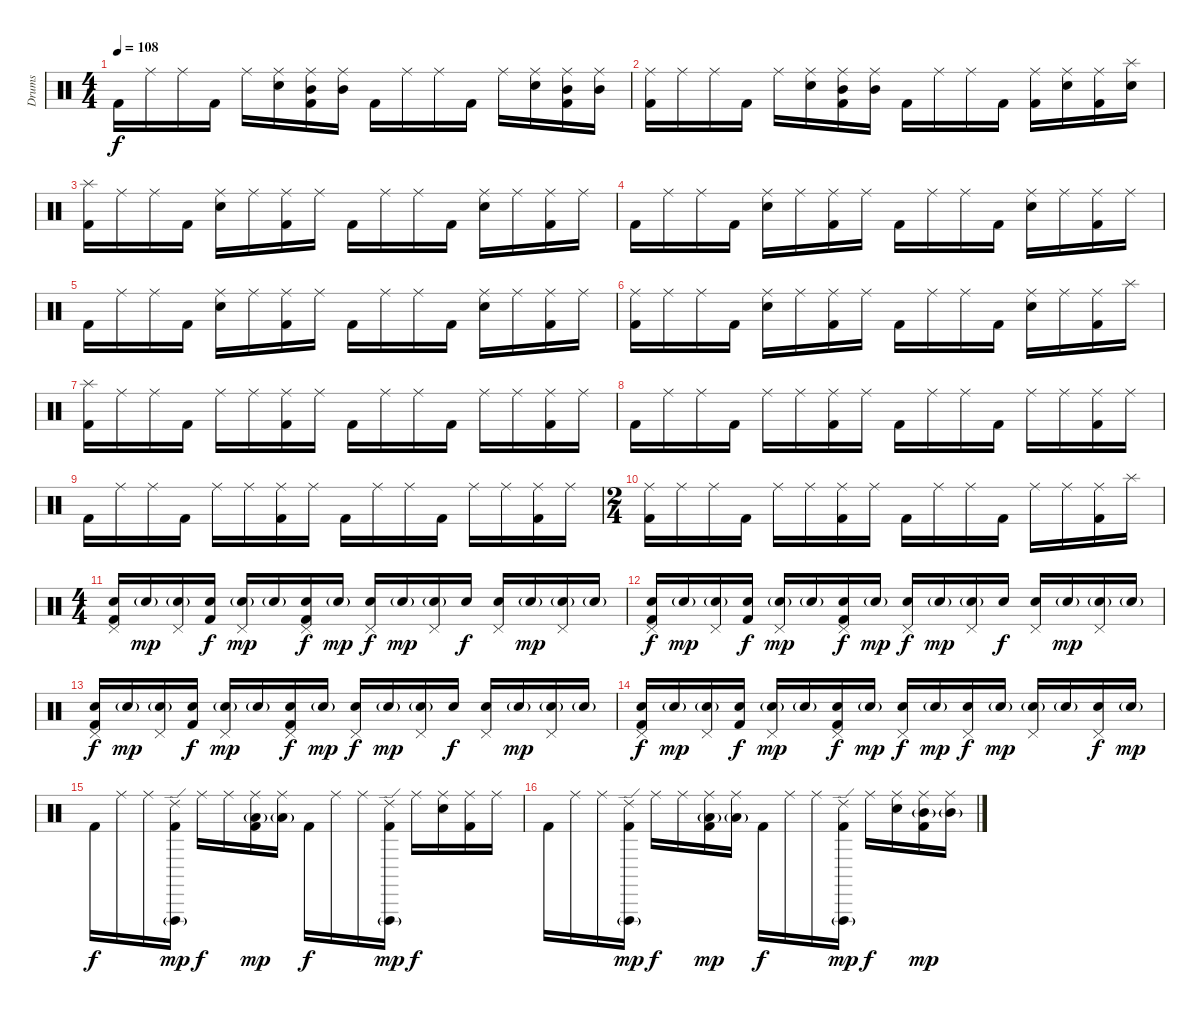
\track ("Drums" "Drums") {instrument percussion}
\staff {score}
\articulation defaults
\ts (4 4)
\tempo 108
\clef neutral
\ks c "Kick (hit) 2".16{dy f} "Ride (middle)".16 "Ride (middle)".16 "Kick (hit) 2".16 "Ride (middle)".16
("Ride (middle)" "Snare (hit) 2").16 ("Ride (middle)" "Mid Tom (hit)" "Kick (hit) 2").16 ("Ride (middle)" "Mid Tom (hit)").16 "Kick (hit) 2".16 "Ride (middle)".16 "Ride (middle)".16 "Kick (hit) 2".16 "Ride (middle)".16 ("Ride (middle)" "Snare (hit) 2").16 ("Ride (middle)" "Mid Tom (hit)" "Kick (hit) 2").16 ("Ride (middle)" "Mid Tom (hit)").16 |
("Ride (middle)" "Kick (hit) 2").16 "Ride (middle)".16 "Ride (middle)".16 "Kick (hit) 2".16 "Ride (middle)".16 ("Ride (middle)" "Snare (hit) 2").16 ("Ride (middle)" "Mid Tom (hit)" "Kick (hit) 2").16 ("Ride (middle)" "Mid Tom (hit)").16 "Kick (hit) 2".16 "Ride (middle)".16 "Ride (middle)".16 "Kick (hit) 2".16 ("Ride (middle)" "Kick (hit) 2").16 ("Ride (middle)" "Snare (hit) 2").16 ("Ride (middle)" "Kick (hit) 2").16 ("Splash (hit)" "Snare (hit) 2").16 |
("Splash (hit)" "Kick (hit) 2").16 "Ride (middle)".16 "Ride (middle)".16 "Kick (hit) 2".16 ("Ride (middle)" "Snare (hit) 2").16 "Ride (middle)".16 ("Ride (middle)" "Kick (hit) 2").16 "Ride (middle)".16 "Kick (hit) 2".16 "Ride (middle)".16 "Ride (middle)".16 "Kick (hit) 2".16 ("Ride (middle)" "Snare (hit) 2").16 "Ride (middle)".16 ("Ride (middle)" "Kick (hit) 2").16 "Ride (middle)".16 |
"Kick (hit) 2".16 "Ride (middle)".16 "Ride (middle)".16 "Kick (hit) 2".16 ("Ride (middle)" "Snare (hit) 2").16 "Ride (middle)".16 ("Ride (middle)" "Kick (hit) 2").16 "Ride (middle)".16 "Kick (hit) 2".16 "Ride (middle)".16 "Ride (middle)".16 "Kick (hit) 2".16 ("Ride (middle)" "Snare (hit) 2").16 "Ride (middle)".16 ("Ride (middle)" "Kick (hit) 2").16 "Ride (middle)".16 |
"Kick (hit) 2".16 "Ride (middle)".16 "Ride (middle)".16 "Kick (hit) 2".16 ("Ride (middle)" "Snare (hit) 2").16 "Ride (middle)".16 ("Ride (middle)" "Kick (hit) 2").16 "Ride (middle)".16 "Kick (hit) 2".16 "Ride (middle)".16 "Ride (middle)".16 "Kick (hit) 2".16 ("Ride (middle)" "Snare (hit) 2").16 "Ride (middle)".16 ("Ride (middle)" "Kick (hit) 2").16 "Ride (middle)".16 |
("Ride (middle)" "Kick (hit) 2").16 "Ride (middle)".16 "Ride (middle)".16 "Kick (hit) 2".16 ("Ride (middle)" "Snare (hit) 2").16 "Ride (middle)".16 ("Ride (middle)" "Kick (hit) 2").16 "Ride (middle)".16 "Kick (hit) 2".16 "Ride (middle)".16 "Ride (middle)".16 "Kick (hit) 2".16 ("Ride (middle)" "Snare (hit) 2").16 "Ride (middle)".16 ("Ride (middle)" "Kick (hit) 2").16 "Splash (hit)".16 |
("Splash (hit)" "Kick (hit) 2").16 "Ride (middle)".16 "Ride (middle)".16 "Kick (hit) 2".16 "Ride (middle)".16 "Ride (middle)".16 ("Ride (middle)" "Kick (hit) 2").16 "Ride (middle)".16 "Kick (hit) 2".16 "Ride (middle)".16 "Ride (middle)".16 "Kick (hit) 2".16 "Ride (middle)".16 "Ride (middle)".16 ("Ride (middle)" "Kick (hit) 2").16 "Ride (middle)".16 |
"Kick (hit) 2".16 "Ride (middle)".16 "Ride (middle)".16 "Kick (hit) 2".16 "Ride (middle)".16 "Ride (middle)".16 ("Ride (middle)" "Kick (hit) 2").16 "Ride (middle)".16 "Kick (hit) 2".16 "Ride (middle)".16 "Ride (middle)".16 "Kick (hit) 2".16 "Ride (middle)".16 "Ride (middle)".16 ("Ride (middle)" "Kick (hit) 2").16 "Ride (middle)".16 |
"Kick (hit) 2".16 "Ride (middle)".16 "Ride (middle)".16 "Kick (hit) 2".16 "Ride (middle)".16 "Ride (middle)".16 ("Ride (middle)" "Kick (hit) 2").16 "Ride (middle)".16 "Kick (hit) 2".16 "Ride (middle)".16 "Ride (middle)".16 "Kick (hit) 2".16 "Ride (middle)".16 "Ride (middle)".16 ("Ride (middle)" "Kick (hit) 2").16 "Ride (middle)".16 |
\ts (2 4)
("Ride (middle)" "Kick (hit) 2").16 "Ride (middle)".16 "Ride (middle)".16 "Kick (hit) 2".16 "Ride (middle)".16 "Ride (middle)".16 ("Ride (middle)" "Kick (hit) 2").16 "Ride (middle)".16 "Kick (hit) 2".16 "Ride (middle)".16 "Ride (middle)".16 "Kick (hit) 2".16 "Ride (middle)".16 "Ride (middle)".16 ("Ride (middle)" "Kick (hit) 2").16 "Splash (hit)".16 |
\ts (4 4)
("Snare (hit) 2" "Kick (hit) 2" "Pedal Hi-Hat (hit)").16{volume 13} "Snare (hit) 2"{g}.16{dy mp volume 9} ("Snare (hit) 2"{g} "Pedal Hi-Hat (hit)").16 ("Snare (hit) 2" "Kick (hit) 2").16{dy f} ("Snare (hit) 2"{g} "Pedal Hi-Hat (hit)").16{dy mp} "Snare (hit) 2"{g}.16 ("Snare (hit) 2" "Kick (hit) 2" "Pedal Hi-Hat (hit)").16{dy f} "Snare (hit) 2"{g}.16{dy mp} ("Snare (hit) 2" "Pedal Hi-Hat (hit)").16{dy f} "Snare (hit) 2"{g}.16{dy mp} ("Snare (hit) 2"{g} "Pedal Hi-Hat (hit)").16 "Snare (hit) 2".16{dy f volume 13} ("Snare (hit) 2" "Pedal Hi-Hat (hit)").16 "Snare (hit) 2"{g}.16{dy mp volume 8} ("Snare (hit) 2"{g} "Pedal Hi-Hat (hit)").16 "Snare (hit) 2"{g}.16 |
("Snare (hit) 2" "Kick (hit) 2" "Pedal Hi-Hat (hit)").16{dy f volume 13} "Snare (hit) 2"{g}.16{dy mp volume 9} ("Snare (hit) 2"{g} "Pedal Hi-Hat (hit)").16 ("Snare (hit) 2" "Kick (hit) 2").16{dy f} ("Snare (hit) 2"{g} "Pedal Hi-Hat (hit)").16{dy mp} "Snare (hit) 2"{g}.16 ("Snare (hit) 2" "Kick (hit) 2" "Pedal Hi-Hat (hit)").16{dy f} "Snare (hit) 2"{g}.16{dy mp volume 10} ("Snare (hit) 2" "Pedal Hi-Hat (hit)").16{dy f volume 13} "Snare (hit) 2"{g}.16{dy mp volume 13} ("Snare (hit) 2"{g} "Pedal Hi-Hat (hit)").16 "Snare (hit) 2".16{dy f volume 16} ("Snare (hit) 2" "Pedal Hi-Hat (hit)").16{volume 16} "Snare (hit) 2"{g}.16{dy mp volume 12} ("Snare (hit) 2"{g} "Pedal Hi-Hat (hit)").16{volume 13} "Snare (hit) 2"{g}.16{volume 13} |
("Snare (hit) 2" "Kick (hit) 2" "Pedal Hi-Hat (hit)").16{dy f volume 13} "Snare (hit) 2"{g}.16{dy mp volume 9} ("Snare (hit) 2"{g} "Pedal Hi-Hat (hit)").16 ("Snare (hit) 2" "Kick (hit) 2").16{dy f} ("Snare (hit) 2"{g} "Pedal Hi-Hat (hit)").16{dy mp} "Snare (hit) 2"{g}.16 ("Snare (hit) 2" "Kick (hit) 2" "Pedal Hi-Hat (hit)").16{dy f} "Snare (hit) 2"{g}.16{dy mp} ("Snare (hit) 2" "Pedal Hi-Hat (hit)").16{dy f} "Snare (hit) 2"{g}.16{dy mp} ("Snare (hit) 2"{g} "Pedal Hi-Hat (hit)").16 "Snare (hit) 2".16{dy f volume 13} ("Snare (hit) 2" "Pedal Hi-Hat (hit)").16 "Snare (hit) 2"{g}.16{dy mp volume 8} ("Snare (hit) 2"{g} "Pedal Hi-Hat (hit)").16 "Snare (hit) 2"{g}.16 |
("Snare (hit) 2" "Kick (hit) 2" "Pedal Hi-Hat (hit)").16{dy f volume 13} "Snare (hit) 2"{g}.16{dy mp volume 9} ("Snare (hit) 2"{g} "Pedal Hi-Hat (hit)").16 ("Snare (hit) 2" "Kick (hit) 2").16{dy f} ("Snare (hit) 2"{g} "Pedal Hi-Hat (hit)").16{dy mp} "Snare (hit) 2"{g}.16 ("Snare (hit) 2" "Kick (hit) 2" "Pedal Hi-Hat (hit)").16{dy f} "Snare (hit) 2"{g}.16{dy mp} ("Snare (hit) 2" "Pedal Hi-Hat (hit)").16{dy f} "Snare (hit) 2"{g}.16{dy mp} ("Snare (hit) 2" "Pedal Hi-Hat (hit)").16{dy f volume 16} "Snare (hit) 2"{g}.16{dy mp volume 13} ("Snare (hit) 2"{g} "Pedal Hi-Hat (hit)").16 "Snare (hit) 2"{g}.16{volume 10} ("Snare (hit) 2" "Pedal Hi-Hat (hit)").16{dy f volume 16} "Snare (hit) 2"{g}.16{dy mp volume 10} |
"Kick (hit) 2".16{dy f volume 16} "Ride (middle)".16 "Ride (middle)".16 ("Vibraslap (hit)"{g} "Ride (edge) 2" "Kick (hit) 2").16{dy mp} "Ride (middle)".16{dy f} "Ride (middle)".16 ("Ride (middle)" "Kick (hit) 2" "Low Tom (hit)"{g}).16{dy mp} ("Ride (middle)" "Low Tom (hit)"{g}).16 "Kick (hit) 2".16{dy f} "Ride (middle)".16 "Ride (middle)".16 ("Vibraslap (hit)"{g} "Ride (edge) 2" "Kick (hit) 2").16{dy mp} "Ride (middle)".16{dy f} ("Ride (middle)" "Snare (hit) 2").16 ("Ride (middle)" "Kick (hit) 2").16 "Ride (middle)".16 |
"Kick (hit) 2".16 "Ride (middle)".16 "Ride (middle)".16 ("Vibraslap (hit)"{g} "Ride (edge) 2" "Kick (hit) 2").16{dy mp} "Ride (middle)".16{dy f} "Ride (middle)".16 ("Ride (middle)" "Kick (hit) 2" "Low Tom (hit)"{g}).16{dy mp} ("Ride (middle)" "Low Tom (hit)"{g}).16 "Kick (hit) 2".16{dy f} "Ride (middle)".16 "Ride (middle)".16 ("Vibraslap (hit)"{g} "Ride (edge) 2" "Kick (hit) 2").16{dy mp} "Ride (middle)".16{dy f} ("Ride (middle)" "Snare (hit) 2").16 ("Ride (middle)" "Mid Tom (hit)"{g} "Kick (hit) 2").16{dy mp} ("Ride (middle)" "Mid Tom (hit)"{g}).16
